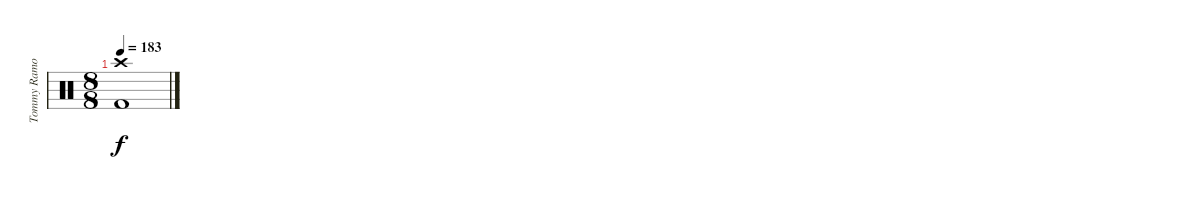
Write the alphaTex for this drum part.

\track ("Tommy Ramone - Drums" "Tommy Ramo") {instrument percussion}
\staff {score}
\articulation defaults
\ts (8 8)
\tempo 183
\clef neutral
\ks c
("Crash high (hit)" "Kick (hit) 2").1{dy f}
